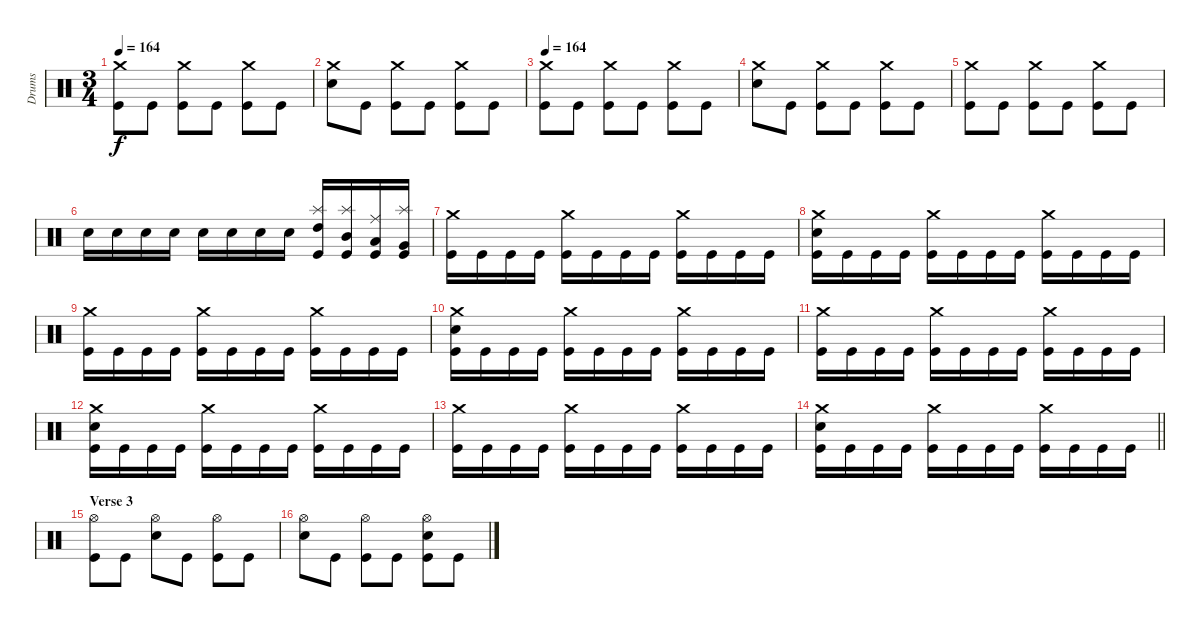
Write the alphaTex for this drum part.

\track ("Drums" "Drums") {instrument percussion}
\staff {score}
\articulation defaults
\ts (3 4)
\tempo 164
\clef neutral
\ks c
("Crash medium (hit)" "Kick (hit)").8{dy f} "Kick (hit)".8 ("Crash medium (hit)" "Kick (hit)").8 "Kick (hit)".8 ("Crash medium (hit)" "Kick (hit)").8 "Kick (hit)".8 |
("Crash medium (hit)" "Snare (hit) 2").8 "Kick (hit)".8 ("Crash medium (hit)" "Kick (hit)").8 "Kick (hit)".8 ("Crash medium (hit)" "Kick (hit)").8 "Kick (hit)".8 |
\tempo 164
("Crash medium (hit)" "Kick (hit)").8 "Kick (hit)".8 ("Crash medium (hit)" "Kick (hit)").8 "Kick (hit)".8 ("Crash medium (hit)" "Kick (hit)").8 "Kick (hit)".8 |
("Crash medium (hit)" "Snare (hit) 2").8 "Kick (hit)".8 ("Crash medium (hit)" "Kick (hit)").8 "Kick (hit)".8 ("Crash medium (hit)" "Kick (hit)").8 "Kick (hit)".8 |
("Crash medium (hit)" "Kick (hit)").8 "Kick (hit)".8 ("Crash medium (hit)" "Kick (hit)").8 "Kick (hit)".8 ("Crash medium (hit)" "Kick (hit)").8 "Kick (hit)".8 |
"Snare (hit) 2".16 "Snare (hit) 2".16 "Snare (hit) 2".16 "Snare (hit) 2".16 "Snare (hit) 2".16 "Snare (hit) 2".16 "Snare (hit) 2".16 "Snare (hit) 2".16 ("Splash (hit)" "High Tom (hit)" "Kick (hit)").16 ("Splash (hit)" "Mid Tom (hit)" "Kick (hit)").16 ("Ride (middle)" "Low Tom (hit)" "Kick (hit)").16 ("Splash (hit)" "Very Low Tom (hit)" "Kick (hit)").16 |
("Crash medium (hit)" "Kick (hit)").16 "Kick (hit)".16 "Kick (hit)".16 "Kick (hit)".16 ("Crash medium (hit)" "Kick (hit)").16 "Kick (hit)".16 "Kick (hit)".16 "Kick (hit)".16 ("Crash medium (hit)" "Kick (hit)").16 "Kick (hit)".16 "Kick (hit)".16 "Kick (hit)".16 |
("Crash medium (hit)" "Snare (hit) 2" "Kick (hit)").16 "Kick (hit)".16 "Kick (hit)".16 "Kick (hit)".16 ("Crash medium (hit)" "Kick (hit)").16 "Kick (hit)".16 "Kick (hit)".16 "Kick (hit)".16 ("Crash medium (hit)" "Kick (hit)").16 "Kick (hit)".16 "Kick (hit)".16 "Kick (hit)".16 |
("Crash medium (hit)" "Kick (hit)").16 "Kick (hit)".16 "Kick (hit)".16 "Kick (hit)".16 ("Crash medium (hit)" "Kick (hit)").16 "Kick (hit)".16 "Kick (hit)".16 "Kick (hit)".16 ("Crash medium (hit)" "Kick (hit)").16 "Kick (hit)".16 "Kick (hit)".16 "Kick (hit)".16 |
("Crash medium (hit)" "Snare (hit) 2" "Kick (hit)").16 "Kick (hit)".16 "Kick (hit)".16 "Kick (hit)".16 ("Crash medium (hit)" "Kick (hit)").16 "Kick (hit)".16 "Kick (hit)".16 "Kick (hit)".16 ("Crash medium (hit)" "Kick (hit)").16 "Kick (hit)".16 "Kick (hit)".16 "Kick (hit)".16 |
("Crash medium (hit)" "Kick (hit)").16 "Kick (hit)".16 "Kick (hit)".16 "Kick (hit)".16 ("Crash medium (hit)" "Kick (hit)").16 "Kick (hit)".16 "Kick (hit)".16 "Kick (hit)".16 ("Crash medium (hit)" "Kick (hit)").16 "Kick (hit)".16 "Kick (hit)".16 "Kick (hit)".16 |
("Crash medium (hit)" "Snare (hit) 2" "Kick (hit)").16 "Kick (hit)".16 "Kick (hit)".16 "Kick (hit)".16 ("Crash medium (hit)" "Kick (hit)").16 "Kick (hit)".16 "Kick (hit)".16 "Kick (hit)".16 ("Crash medium (hit)" "Kick (hit)").16 "Kick (hit)".16 "Kick (hit)".16 "Kick (hit)".16 |
("Crash medium (hit)" "Kick (hit)").16 "Kick (hit)".16 "Kick (hit)".16 "Kick (hit)".16 ("Crash medium (hit)" "Kick (hit)").16 "Kick (hit)".16 "Kick (hit)".16 "Kick (hit)".16 ("Crash medium (hit)" "Kick (hit)").16 "Kick (hit)".16 "Kick (hit)".16 "Kick (hit)".16 |
\barLineRight lightlight
("Crash medium (hit)" "Snare (hit) 2" "Kick (hit)").16 "Kick (hit)".16 "Kick (hit)".16 "Kick (hit)".16 ("Crash medium (hit)" "Kick (hit)").16 "Kick (hit)".16 "Kick (hit)".16 "Kick (hit)".16 ("Crash medium (hit)" "Kick (hit)").16 "Kick (hit)".16 "Kick (hit)".16 "Kick (hit)".16 |
\section ("" "Verse 3")
("Hi-Hat (open)" "Kick (hit)").8 "Kick (hit)".8 ("Hi-Hat (open)" "Snare (hit) 2").8 "Kick (hit)".8 ("Hi-Hat (open)" "Kick (hit)").8 "Kick (hit)".8 |
("Hi-Hat (open)" "Snare (hit) 2").8 "Kick (hit)".8 ("Hi-Hat (open)" "Kick (hit)").8 "Kick (hit)".8 ("Hi-Hat (open)" "Snare (hit) 2" "Kick (hit)").8 "Kick (hit)".8
